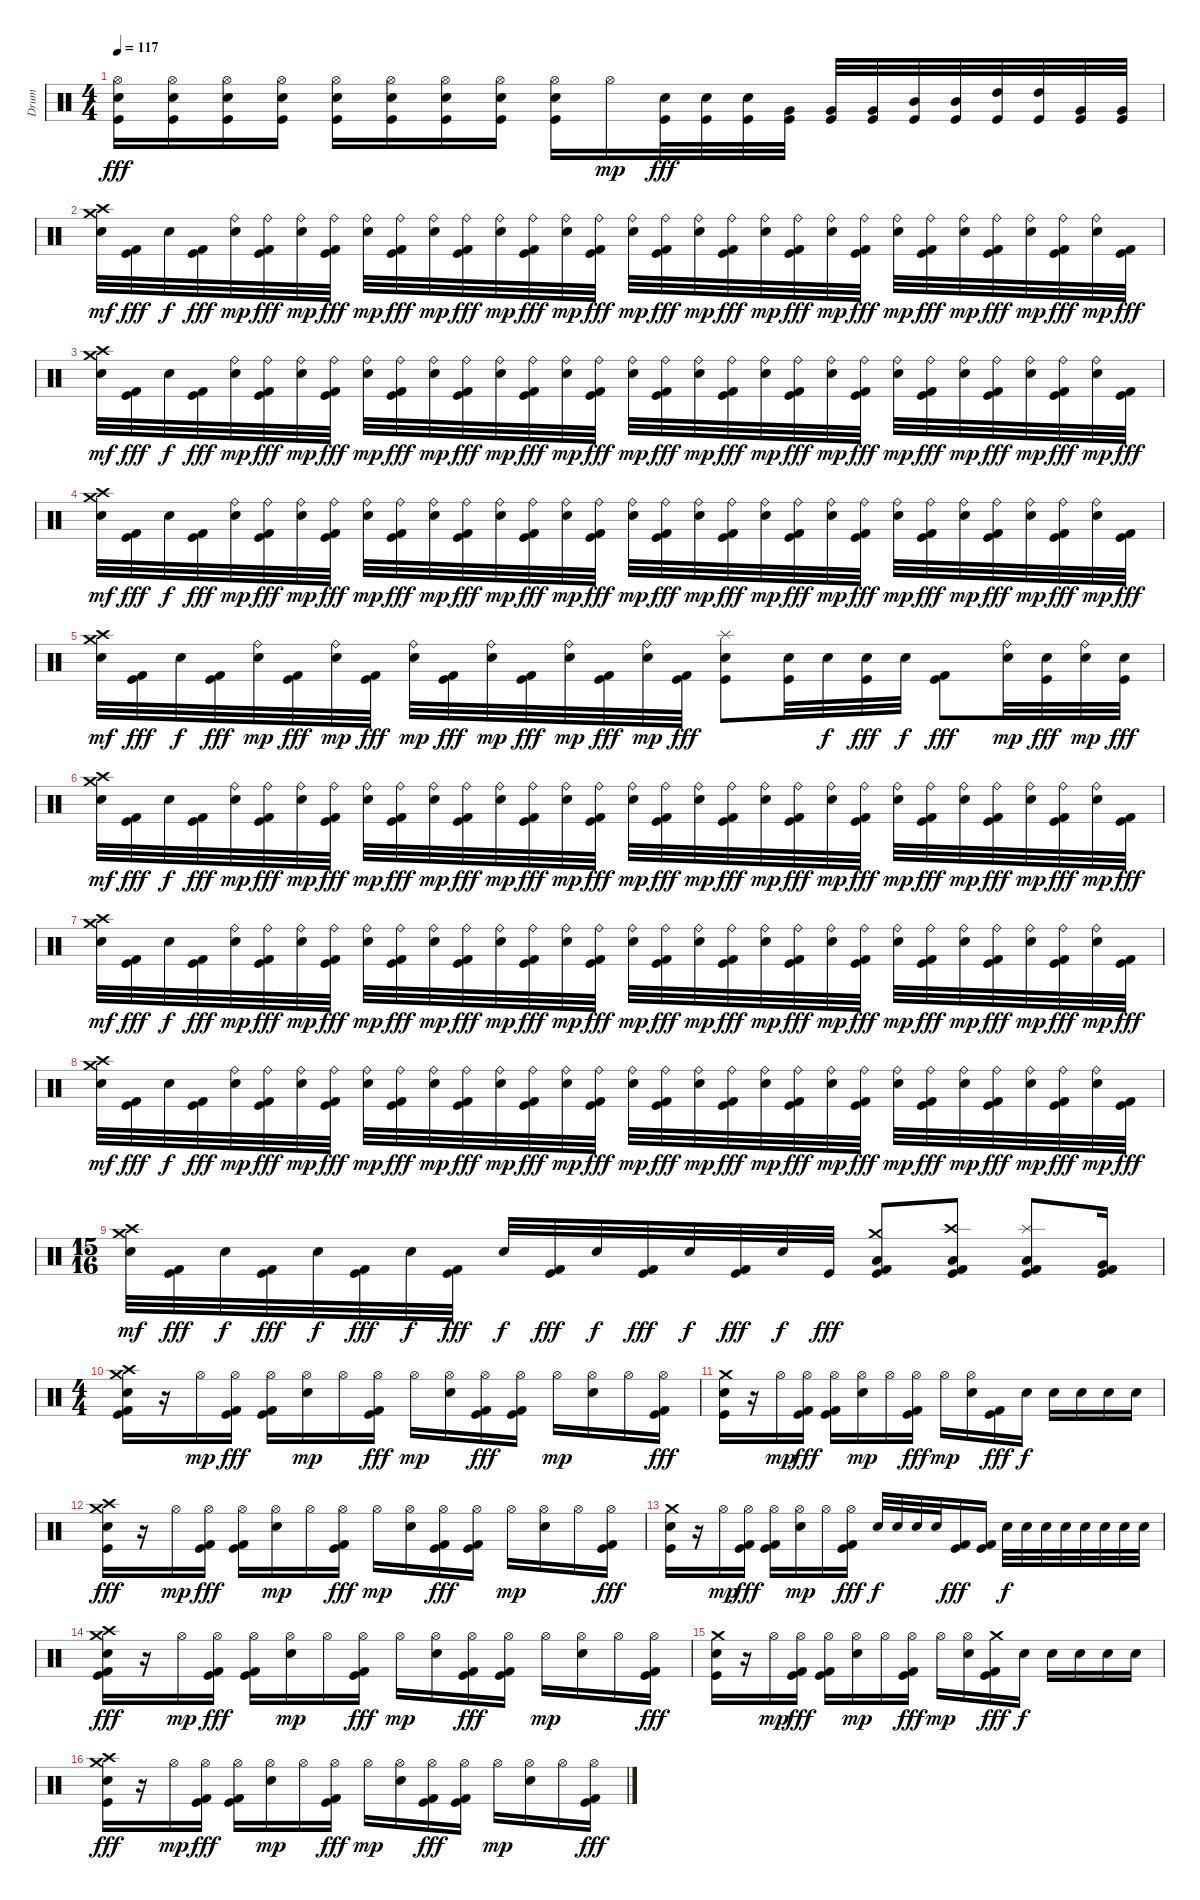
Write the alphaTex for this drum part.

\track ("Drum" "Drum") {instrument percussion}
\staff {score}
\articulation defaults
\ts (4 4)
\tempo 117
\clef neutral
\ks c
("Hi-Hat (open)" "Electric Snare (hit)" "Kick (hit)").16{dy fff} ("Hi-Hat (open)" "Electric Snare (hit)" "Kick (hit)").16 ("Hi-Hat (open)" "Electric Snare (hit)" "Kick (hit)").16 ("Hi-Hat (open)" "Electric Snare (hit)" "Kick (hit)").16 ("Hi-Hat (open)" "Electric Snare (hit)" "Kick (hit)").16 ("Hi-Hat (open)" "Electric Snare (hit)" "Kick (hit)").16 ("Hi-Hat (open)" "Electric Snare (hit)" "Kick (hit)").16 ("Hi-Hat (open)" "Electric Snare (hit)" "Kick (hit)").16 ("Hi-Hat (open)" "Electric Snare (hit)" "Kick (hit)").16 "Hi-Hat (open)".16{dy mp} ("Electric Snare (hit)" "Kick (hit)").32{dy fff} ("Electric Snare (hit)" "Kick (hit)").32 ("Electric Snare (hit)" "Kick (hit)").32 ("Very Low Tom (hit)" "Kick (hit)").32 ("Very Low Tom (hit)" "Kick (hit)").32 ("Very Low Tom (hit)" "Kick (hit)").32 ("Mid Tom (hit)" "Kick (hit)").32 ("Mid Tom (hit)" "Kick (hit)").32 ("High Tom (hit)" "Kick (hit)").32 ("High Tom (hit)" "Kick (hit)").32 ("Very Low Tom (hit)" "Kick (hit)").32 ("Very Low Tom (hit)" "Kick (hit)").32 |
("Crash medium (hit)" "Crash high (hit)" "Electric Snare (hit)").32{dy mf} ("Kick (hit) 2" "Kick (hit)").32{dy fff} "Electric Snare (hit)".32{dy f} ("Kick (hit) 2" "Kick (hit)").32{dy fff} ("Ride (bell)" "Electric Snare (hit)").32{dy mp} ("Ride (bell)" "Kick (hit) 2" "Kick (hit)").32{dy fff} ("Ride (bell)" "Electric Snare (hit)").32{dy mp} ("Ride (bell)" "Kick (hit) 2" "Kick (hit)").32{dy fff} ("Ride (bell)" "Electric Snare (hit)").32{dy mp} ("Ride (bell)" "Kick (hit) 2" "Kick (hit)").32{dy fff} ("Ride (bell)" "Electric Snare (hit)").32{dy mp} ("Ride (bell)" "Kick (hit) 2" "Kick (hit)").32{dy fff} ("Ride (bell)" "Electric Snare (hit)").32{dy mp} ("Ride (bell)" "Kick (hit) 2" "Kick (hit)").32{dy fff} ("Ride (bell)" "Electric Snare (hit)").32{dy mp} ("Ride (bell)" "Kick (hit) 2" "Kick (hit)").32{dy fff} ("Ride (bell)" "Electric Snare (hit)").32{dy mp} ("Ride (bell)" "Kick (hit) 2" "Kick (hit)").32{dy fff} ("Ride (bell)" "Electric Snare (hit)").32{dy mp} ("Ride (bell)" "Kick (hit) 2" "Kick (hit)").32{dy fff} ("Ride (bell)" "Electric Snare (hit)").32{dy mp} ("Ride (bell)" "Kick (hit) 2" "Kick (hit)").32{dy fff} ("Ride (bell)" "Electric Snare (hit)").32{dy mp} ("Ride (bell)" "Kick (hit) 2" "Kick (hit)").32{dy fff} ("Ride (bell)" "Electric Snare (hit)").32{dy mp} ("Ride (bell)" "Kick (hit) 2" "Kick (hit)").32{dy fff} ("Ride (bell)" "Electric Snare (hit)").32{dy mp} ("Ride (bell)" "Kick (hit) 2" "Kick (hit)").32{dy fff} ("Ride (bell)" "Electric Snare (hit)").32{dy mp} ("Ride (bell)" "Kick (hit) 2" "Kick (hit)").32{dy fff} ("Ride (bell)" "Electric Snare (hit)").32{dy mp} ("Kick (hit) 2" "Kick (hit)").32{dy fff} |
("Crash medium (hit)" "Crash high (hit)" "Electric Snare (hit)").32{dy mf} ("Kick (hit) 2" "Kick (hit)").32{dy fff} "Electric Snare (hit)".32{dy f} ("Kick (hit) 2" "Kick (hit)").32{dy fff} ("Ride (bell)" "Electric Snare (hit)").32{dy mp} ("Ride (bell)" "Kick (hit) 2" "Kick (hit)").32{dy fff} ("Ride (bell)" "Electric Snare (hit)").32{dy mp} ("Ride (bell)" "Kick (hit) 2" "Kick (hit)").32{dy fff} ("Ride (bell)" "Electric Snare (hit)").32{dy mp} ("Ride (bell)" "Kick (hit) 2" "Kick (hit)").32{dy fff} ("Ride (bell)" "Electric Snare (hit)").32{dy mp} ("Ride (bell)" "Kick (hit) 2" "Kick (hit)").32{dy fff} ("Ride (bell)" "Electric Snare (hit)").32{dy mp} ("Ride (bell)" "Kick (hit) 2" "Kick (hit)").32{dy fff} ("Ride (bell)" "Electric Snare (hit)").32{dy mp} ("Ride (bell)" "Kick (hit) 2" "Kick (hit)").32{dy fff} ("Ride (bell)" "Electric Snare (hit)").32{dy mp} ("Ride (bell)" "Kick (hit) 2" "Kick (hit)").32{dy fff} ("Ride (bell)" "Electric Snare (hit)").32{dy mp} ("Ride (bell)" "Kick (hit) 2" "Kick (hit)").32{dy fff} ("Ride (bell)" "Electric Snare (hit)").32{dy mp} ("Ride (bell)" "Kick (hit) 2" "Kick (hit)").32{dy fff} ("Ride (bell)" "Electric Snare (hit)").32{dy mp} ("Ride (bell)" "Kick (hit) 2" "Kick (hit)").32{dy fff} ("Ride (bell)" "Electric Snare (hit)").32{dy mp} ("Ride (bell)" "Kick (hit) 2" "Kick (hit)").32{dy fff} ("Ride (bell)" "Electric Snare (hit)").32{dy mp} ("Ride (bell)" "Kick (hit) 2" "Kick (hit)").32{dy fff} ("Ride (bell)" "Electric Snare (hit)").32{dy mp} ("Ride (bell)" "Kick (hit) 2" "Kick (hit)").32{dy fff} ("Ride (bell)" "Electric Snare (hit)").32{dy mp} ("Kick (hit) 2" "Kick (hit)").32{dy fff} |
("Crash medium (hit)" "Crash high (hit)" "Electric Snare (hit)").32{dy mf} ("Kick (hit) 2" "Kick (hit)").32{dy fff} "Electric Snare (hit)".32{dy f} ("Kick (hit) 2" "Kick (hit)").32{dy fff} ("Ride (bell)" "Electric Snare (hit)").32{dy mp} ("Ride (bell)" "Kick (hit) 2" "Kick (hit)").32{dy fff} ("Ride (bell)" "Electric Snare (hit)").32{dy mp} ("Ride (bell)" "Kick (hit) 2" "Kick (hit)").32{dy fff} ("Ride (bell)" "Electric Snare (hit)").32{dy mp} ("Ride (bell)" "Kick (hit) 2" "Kick (hit)").32{dy fff} ("Ride (bell)" "Electric Snare (hit)").32{dy mp} ("Ride (bell)" "Kick (hit) 2" "Kick (hit)").32{dy fff} ("Ride (bell)" "Electric Snare (hit)").32{dy mp} ("Ride (bell)" "Kick (hit) 2" "Kick (hit)").32{dy fff} ("Ride (bell)" "Electric Snare (hit)").32{dy mp} ("Ride (bell)" "Kick (hit) 2" "Kick (hit)").32{dy fff} ("Ride (bell)" "Electric Snare (hit)").32{dy mp} ("Ride (bell)" "Kick (hit) 2" "Kick (hit)").32{dy fff} ("Ride (bell)" "Electric Snare (hit)").32{dy mp} ("Ride (bell)" "Kick (hit) 2" "Kick (hit)").32{dy fff} ("Ride (bell)" "Electric Snare (hit)").32{dy mp} ("Ride (bell)" "Kick (hit) 2" "Kick (hit)").32{dy fff} ("Ride (bell)" "Electric Snare (hit)").32{dy mp} ("Ride (bell)" "Kick (hit) 2" "Kick (hit)").32{dy fff} ("Ride (bell)" "Electric Snare (hit)").32{dy mp} ("Ride (bell)" "Kick (hit) 2" "Kick (hit)").32{dy fff} ("Ride (bell)" "Electric Snare (hit)").32{dy mp} ("Ride (bell)" "Kick (hit) 2" "Kick (hit)").32{dy fff} ("Ride (bell)" "Electric Snare (hit)").32{dy mp} ("Ride (bell)" "Kick (hit) 2" "Kick (hit)").32{dy fff} ("Ride (bell)" "Electric Snare (hit)").32{dy mp} ("Kick (hit) 2" "Kick (hit)").32{dy fff} |
("Crash medium (hit)" "Crash high (hit)" "Electric Snare (hit)").32{dy mf} ("Kick (hit) 2" "Kick (hit)").32{dy fff} "Electric Snare (hit)".32{dy f} ("Kick (hit) 2" "Kick (hit)").32{dy fff} ("Ride (bell)" "Electric Snare (hit)").32{dy mp} ("Kick (hit) 2" "Kick (hit)").32{dy fff} ("Ride (bell)" "Electric Snare (hit)").32{dy mp} ("Kick (hit) 2" "Kick (hit)").32{dy fff} ("Ride (bell)" "Electric Snare (hit)").32{dy mp} ("Kick (hit) 2" "Kick (hit)").32{dy fff} ("Ride (bell)" "Electric Snare (hit)").32{dy mp} ("Kick (hit) 2" "Kick (hit)").32{dy fff} ("Ride (bell)" "Electric Snare (hit)").32{dy mp} ("Kick (hit) 2" "Kick (hit)").32{dy fff} ("Ride (bell)" "Electric Snare (hit)").32{dy mp} ("Kick (hit) 2" "Kick (hit)").32{dy fff} ("Splash (hit)" "Electric Snare (hit)" "Kick (hit)").8 ("Electric Snare (hit)" "Kick (hit)").32 "Electric Snare (hit)".32{dy f} ("Electric Snare (hit)" "Kick (hit)").32{dy fff} "Electric Snare (hit)".32{dy f} ("Kick (hit) 2" "Kick (hit)").8{dy fff} ("Ride (bell)" "Electric Snare (hit)").32{dy mp} ("Electric Snare (hit)" "Kick (hit)").32{dy fff} ("Ride (bell)" "Electric Snare (hit)").32{dy mp} ("Electric Snare (hit)" "Kick (hit)").32{dy fff} |
("Crash medium (hit)" "Crash high (hit)" "Electric Snare (hit)").32{dy mf} ("Kick (hit) 2" "Kick (hit)").32{dy fff} "Electric Snare (hit)".32{dy f} ("Kick (hit) 2" "Kick (hit)").32{dy fff} ("Ride (bell)" "Electric Snare (hit)").32{dy mp} ("Ride (bell)" "Kick (hit) 2" "Kick (hit)").32{dy fff} ("Ride (bell)" "Electric Snare (hit)").32{dy mp} ("Ride (bell)" "Kick (hit) 2" "Kick (hit)").32{dy fff} ("Ride (bell)" "Electric Snare (hit)").32{dy mp} ("Ride (bell)" "Kick (hit) 2" "Kick (hit)").32{dy fff} ("Ride (bell)" "Electric Snare (hit)").32{dy mp} ("Ride (bell)" "Kick (hit) 2" "Kick (hit)").32{dy fff} ("Ride (bell)" "Electric Snare (hit)").32{dy mp} ("Ride (bell)" "Kick (hit) 2" "Kick (hit)").32{dy fff} ("Ride (bell)" "Electric Snare (hit)").32{dy mp} ("Ride (bell)" "Kick (hit) 2" "Kick (hit)").32{dy fff} ("Ride (bell)" "Electric Snare (hit)").32{dy mp} ("Ride (bell)" "Kick (hit) 2" "Kick (hit)").32{dy fff} ("Ride (bell)" "Electric Snare (hit)").32{dy mp} ("Ride (bell)" "Kick (hit) 2" "Kick (hit)").32{dy fff} ("Ride (bell)" "Electric Snare (hit)").32{dy mp} ("Ride (bell)" "Kick (hit) 2" "Kick (hit)").32{dy fff} ("Ride (bell)" "Electric Snare (hit)").32{dy mp} ("Ride (bell)" "Kick (hit) 2" "Kick (hit)").32{dy fff} ("Ride (bell)" "Electric Snare (hit)").32{dy mp} ("Ride (bell)" "Kick (hit) 2" "Kick (hit)").32{dy fff} ("Ride (bell)" "Electric Snare (hit)").32{dy mp} ("Ride (bell)" "Kick (hit) 2" "Kick (hit)").32{dy fff} ("Ride (bell)" "Electric Snare (hit)").32{dy mp} ("Ride (bell)" "Kick (hit) 2" "Kick (hit)").32{dy fff} ("Ride (bell)" "Electric Snare (hit)").32{dy mp} ("Kick (hit) 2" "Kick (hit)").32{dy fff} |
("Crash medium (hit)" "Crash high (hit)" "Electric Snare (hit)").32{dy mf} ("Kick (hit) 2" "Kick (hit)").32{dy fff} "Electric Snare (hit)".32{dy f} ("Kick (hit) 2" "Kick (hit)").32{dy fff} ("Ride (bell)" "Electric Snare (hit)").32{dy mp} ("Ride (bell)" "Kick (hit) 2" "Kick (hit)").32{dy fff} ("Ride (bell)" "Electric Snare (hit)").32{dy mp} ("Ride (bell)" "Kick (hit) 2" "Kick (hit)").32{dy fff} ("Ride (bell)" "Electric Snare (hit)").32{dy mp} ("Ride (bell)" "Kick (hit) 2" "Kick (hit)").32{dy fff} ("Ride (bell)" "Electric Snare (hit)").32{dy mp} ("Ride (bell)" "Kick (hit) 2" "Kick (hit)").32{dy fff} ("Ride (bell)" "Electric Snare (hit)").32{dy mp} ("Ride (bell)" "Kick (hit) 2" "Kick (hit)").32{dy fff} ("Ride (bell)" "Electric Snare (hit)").32{dy mp} ("Ride (bell)" "Kick (hit) 2" "Kick (hit)").32{dy fff} ("Ride (bell)" "Electric Snare (hit)").32{dy mp} ("Ride (bell)" "Kick (hit) 2" "Kick (hit)").32{dy fff} ("Ride (bell)" "Electric Snare (hit)").32{dy mp} ("Ride (bell)" "Kick (hit) 2" "Kick (hit)").32{dy fff} ("Ride (bell)" "Electric Snare (hit)").32{dy mp} ("Ride (bell)" "Kick (hit) 2" "Kick (hit)").32{dy fff} ("Ride (bell)" "Electric Snare (hit)").32{dy mp} ("Ride (bell)" "Kick (hit) 2" "Kick (hit)").32{dy fff} ("Ride (bell)" "Electric Snare (hit)").32{dy mp} ("Ride (bell)" "Kick (hit) 2" "Kick (hit)").32{dy fff} ("Ride (bell)" "Electric Snare (hit)").32{dy mp} ("Ride (bell)" "Kick (hit) 2" "Kick (hit)").32{dy fff} ("Ride (bell)" "Electric Snare (hit)").32{dy mp} ("Ride (bell)" "Kick (hit) 2" "Kick (hit)").32{dy fff} ("Ride (bell)" "Electric Snare (hit)").32{dy mp} ("Kick (hit) 2" "Kick (hit)").32{dy fff} |
("Crash medium (hit)" "Crash high (hit)" "Electric Snare (hit)").32{dy mf} ("Kick (hit) 2" "Kick (hit)").32{dy fff} "Electric Snare (hit)".32{dy f} ("Kick (hit) 2" "Kick (hit)").32{dy fff} ("Ride (bell)" "Electric Snare (hit)").32{dy mp} ("Ride (bell)" "Kick (hit) 2" "Kick (hit)").32{dy fff} ("Ride (bell)" "Electric Snare (hit)").32{dy mp} ("Ride (bell)" "Kick (hit) 2" "Kick (hit)").32{dy fff} ("Ride (bell)" "Electric Snare (hit)").32{dy mp} ("Ride (bell)" "Kick (hit) 2" "Kick (hit)").32{dy fff} ("Ride (bell)" "Electric Snare (hit)").32{dy mp} ("Ride (bell)" "Kick (hit) 2" "Kick (hit)").32{dy fff} ("Ride (bell)" "Electric Snare (hit)").32{dy mp} ("Ride (bell)" "Kick (hit) 2" "Kick (hit)").32{dy fff} ("Ride (bell)" "Electric Snare (hit)").32{dy mp} ("Ride (bell)" "Kick (hit) 2" "Kick (hit)").32{dy fff} ("Ride (bell)" "Electric Snare (hit)").32{dy mp} ("Ride (bell)" "Kick (hit) 2" "Kick (hit)").32{dy fff} ("Ride (bell)" "Electric Snare (hit)").32{dy mp} ("Ride (bell)" "Kick (hit) 2" "Kick (hit)").32{dy fff} ("Ride (bell)" "Electric Snare (hit)").32{dy mp} ("Ride (bell)" "Kick (hit) 2" "Kick (hit)").32{dy fff} ("Ride (bell)" "Electric Snare (hit)").32{dy mp} ("Ride (bell)" "Kick (hit) 2" "Kick (hit)").32{dy fff} ("Ride (bell)" "Electric Snare (hit)").32{dy mp} ("Ride (bell)" "Kick (hit) 2" "Kick (hit)").32{dy fff} ("Ride (bell)" "Electric Snare (hit)").32{dy mp} ("Ride (bell)" "Kick (hit) 2" "Kick (hit)").32{dy fff} ("Ride (bell)" "Electric Snare (hit)").32{dy mp} ("Ride (bell)" "Kick (hit) 2" "Kick (hit)").32{dy fff} ("Ride (bell)" "Electric Snare (hit)").32{dy mp} ("Kick (hit) 2" "Kick (hit)").32{dy fff} |
\ts (15 16)
("Crash medium (hit)" "Crash high (hit)" "Electric Snare (hit)").32{dy mf} ("Kick (hit) 2" "Kick (hit)").32{dy fff} "Electric Snare (hit)".32{dy f} ("Kick (hit) 2" "Kick (hit)").32{dy fff} "Electric Snare (hit)".32{dy f} ("Kick (hit) 2" "Kick (hit)").32{dy fff} "Electric Snare (hit)".32{dy f} ("Kick (hit) 2" "Kick (hit)").32{dy fff} "Electric Snare (hit)".32{dy f} ("Kick (hit) 2" "Kick (hit)").32{dy fff} "Electric Snare (hit)".32{dy f} ("Kick (hit) 2" "Kick (hit)").32{dy fff} "Electric Snare (hit)".32{dy f} ("Kick (hit) 2" "Kick (hit)").32{dy fff} "Electric Snare (hit)".32{dy f} "Kick (hit)".32{dy fff} ("Crash medium (hit)" "Kick (hit) 2" "Low Floor Tom (hit)" "Kick (hit)").8 ("Crash high (hit)" "Kick (hit) 2" "Low Floor Tom (hit)" "Kick (hit)").8 ("Splash (hit)" "Kick (hit) 2" "Low Floor Tom (hit)" "Kick (hit)").8 ("Kick (hit) 2" "Very Low Tom (hit)" "Kick (hit)").16 |
\ts (4 4)
("Crash medium (hit)" "Crash high (hit)" "Electric Snare (hit)" "Kick (hit) 2" "Kick (hit)").16 r.16 "Hi-Hat (open)".16{dy mp} ("Hi-Hat (open)" "Kick (hit) 2" "Kick (hit)").16{dy fff} ("Hi-Hat (open)" "Kick (hit) 2" "Kick (hit)").16 ("Hi-Hat (open)" "Electric Snare (hit)").16{dy mp} "Hi-Hat (open)".16 ("Hi-Hat (open)" "Kick (hit) 2" "Kick (hit)").16{dy fff} "Hi-Hat (open)".16{dy mp} ("Hi-Hat (open)" "Electric Snare (hit)").16 ("Hi-Hat (open)" "Kick (hit) 2" "Kick (hit)").16{dy fff} ("Hi-Hat (open)" "Kick (hit) 2" "Kick (hit)").16 "Hi-Hat (open)".16{dy mp} ("Hi-Hat (open)" "Electric Snare (hit)").16 "Hi-Hat (open)".16 ("Hi-Hat (open)" "Kick (hit) 2" "Kick (hit)").16{dy fff} |
("Crash medium (hit)" "Electric Snare (hit)" "Kick (hit)").16 r.16 "Hi-Hat (open)".16{dy mp} ("Hi-Hat (open)" "Kick (hit) 2" "Kick (hit)").16{dy fff} ("Hi-Hat (open)" "Kick (hit) 2" "Kick (hit)").16 ("Hi-Hat (open)" "Electric Snare (hit)").16{dy mp} "Hi-Hat (open)".16 ("Hi-Hat (open)" "Kick (hit) 2" "Kick (hit)").16{dy fff} "Hi-Hat (open)".16{dy mp} ("Hi-Hat (open)" "Electric Snare (hit)").16 ("Kick (hit) 2" "Kick (hit)").16{dy fff} "Electric Snare (hit)".16{dy f} "Electric Snare (hit)".16 "Electric Snare (hit)".16 "Electric Snare (hit)".16 "Electric Snare (hit)".16 |
("Crash medium (hit)" "Crash high (hit)" "Electric Snare (hit)" "Kick (hit)").16{dy fff} r.16 "Hi-Hat (open)".16{dy mp} ("Hi-Hat (open)" "Kick (hit) 2" "Kick (hit)").16{dy fff} ("Hi-Hat (open)" "Kick (hit) 2" "Kick (hit)").16 ("Hi-Hat (open)" "Electric Snare (hit)").16{dy mp} "Hi-Hat (open)".16 ("Hi-Hat (open)" "Kick (hit) 2" "Kick (hit)").16{dy fff} "Hi-Hat (open)".16{dy mp} ("Hi-Hat (open)" "Electric Snare (hit)").16 ("Hi-Hat (open)" "Kick (hit) 2" "Kick (hit)").16{dy fff} ("Hi-Hat (open)" "Kick (hit) 2" "Kick (hit)").16 "Hi-Hat (open)".16{dy mp} ("Hi-Hat (open)" "Electric Snare (hit)").16 "Hi-Hat (open)".16 ("Hi-Hat (open)" "Kick (hit) 2" "Kick (hit)").16{dy fff} |
("Crash medium (hit)" "Electric Snare (hit)" "Kick (hit)").16 r.16 "Hi-Hat (open)".16{dy mp} ("Hi-Hat (open)" "Kick (hit) 2" "Kick (hit)").16{dy fff} ("Hi-Hat (open)" "Kick (hit) 2" "Kick (hit)").16 ("Hi-Hat (open)" "Electric Snare (hit)").16{dy mp} "Hi-Hat (open)".16 ("Hi-Hat (open)" "Kick (hit) 2" "Kick (hit)").16{dy fff} "Electric Snare (hit)".32{dy f} "Electric Snare (hit)".32 "Electric Snare (hit)".32 "Electric Snare (hit)".32 ("Kick (hit) 2" "Kick (hit)").16{dy fff} ("Kick (hit) 2" "Kick (hit)").16 "Electric Snare (hit)".32{dy f} "Electric Snare (hit)".32 "Electric Snare (hit)".32 "Electric Snare (hit)".32 "Electric Snare (hit)".32 "Electric Snare (hit)".32 "Electric Snare (hit)".32 "Electric Snare (hit)".32 |
("Crash medium (hit)" "Crash high (hit)" "Electric Snare (hit)" "Kick (hit) 2" "Kick (hit)").16{dy fff} r.16 "Hi-Hat (open)".16{dy mp} ("Hi-Hat (open)" "Kick (hit) 2" "Kick (hit)").16{dy fff} ("Hi-Hat (open)" "Kick (hit) 2" "Kick (hit)").16 ("Hi-Hat (open)" "Electric Snare (hit)").16{dy mp} "Hi-Hat (open)".16 ("Hi-Hat (open)" "Kick (hit) 2" "Kick (hit)").16{dy fff} "Hi-Hat (open)".16{dy mp} ("Hi-Hat (open)" "Electric Snare (hit)").16 ("Hi-Hat (open)" "Kick (hit) 2" "Kick (hit)").16{dy fff} ("Hi-Hat (open)" "Kick (hit) 2" "Kick (hit)").16 "Hi-Hat (open)".16{dy mp} ("Hi-Hat (open)" "Electric Snare (hit)").16 "Hi-Hat (open)".16 ("Hi-Hat (open)" "Kick (hit) 2" "Kick (hit)").16{dy fff} |
("Crash medium (hit)" "Electric Snare (hit)" "Kick (hit)").16 r.16 "Hi-Hat (open)".16{dy mp} ("Hi-Hat (open)" "Kick (hit) 2" "Kick (hit)").16{dy fff} ("Hi-Hat (open)" "Kick (hit) 2" "Kick (hit)").16 ("Hi-Hat (open)" "Electric Snare (hit)").16{dy mp} "Hi-Hat (open)".16 ("Hi-Hat (open)" "Kick (hit) 2" "Kick (hit)").16{dy fff} "Hi-Hat (open)".16{dy mp} ("Hi-Hat (open)" "Electric Snare (hit)").16 ("Crash medium (hit)" "Kick (hit) 2" "Kick (hit)").16{dy fff} "Electric Snare (hit)".16{dy f} "Electric Snare (hit)".16 "Electric Snare (hit)".16 "Electric Snare (hit)".16 "Electric Snare (hit)".16 |
("Crash medium (hit)" "Crash high (hit)" "Electric Snare (hit)" "Kick (hit)").16{dy fff} r.16 "Hi-Hat (open)".16{dy mp} ("Hi-Hat (open)" "Kick (hit) 2" "Kick (hit)").16{dy fff} ("Hi-Hat (open)" "Kick (hit) 2" "Kick (hit)").16 ("Hi-Hat (open)" "Electric Snare (hit)").16{dy mp} "Hi-Hat (open)".16 ("Hi-Hat (open)" "Kick (hit) 2" "Kick (hit)").16{dy fff} "Hi-Hat (open)".16{dy mp} ("Hi-Hat (open)" "Electric Snare (hit)").16 ("Hi-Hat (open)" "Kick (hit) 2" "Kick (hit)").16{dy fff} ("Hi-Hat (open)" "Kick (hit) 2" "Kick (hit)").16 "Hi-Hat (open)".16{dy mp} ("Hi-Hat (open)" "Electric Snare (hit)").16 "Hi-Hat (open)".16 ("Hi-Hat (open)" "Kick (hit) 2" "Kick (hit)").16{dy fff}
